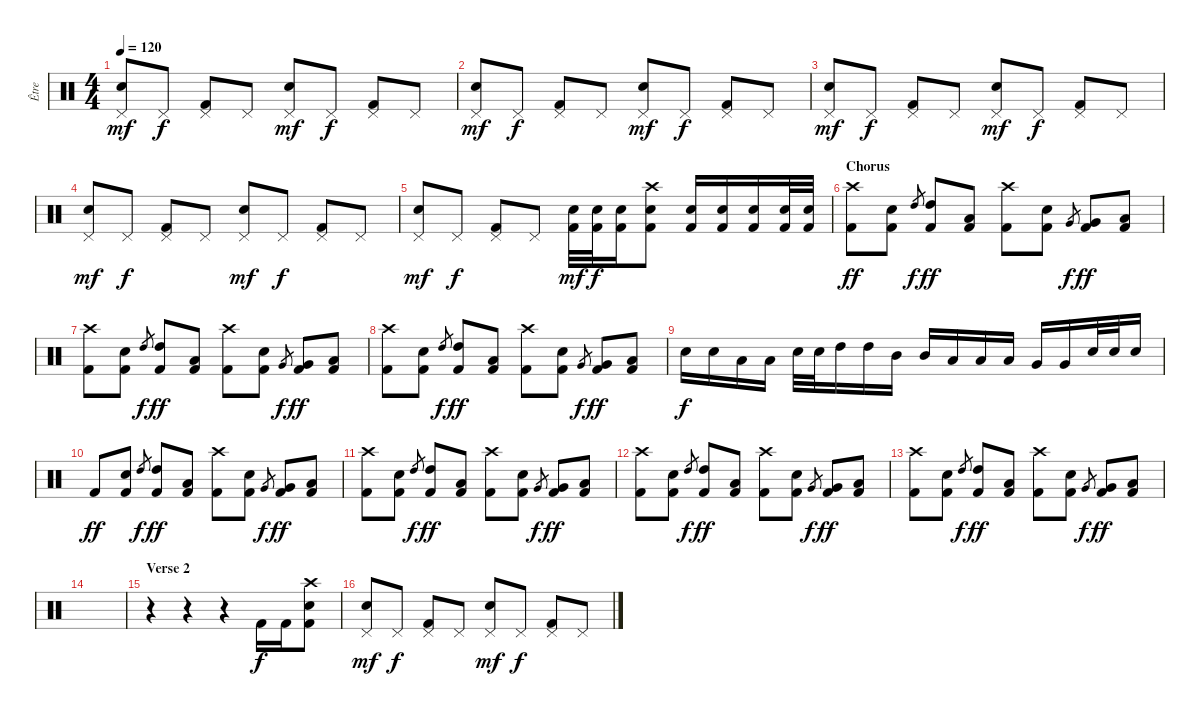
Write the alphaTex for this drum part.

\track ("Être" "Être") {instrument percussion}
\staff {score}
\articulation defaults
\ts (4 4)
\tempo 120
\clef neutral
\ks c
("Pedal Hi-Hat (hit)" "Electric Snare (hit)").8{dy mf} "Pedal Hi-Hat (hit)".8{dy f} ("Kick (hit) 2" "Pedal Hi-Hat (hit)").8 "Pedal Hi-Hat (hit)".8 ("Pedal Hi-Hat (hit)" "Electric Snare (hit)").8{dy mf} "Pedal Hi-Hat (hit)".8{dy f} ("Kick (hit) 2" "Pedal Hi-Hat (hit)").8 "Pedal Hi-Hat (hit)".8 |
("Pedal Hi-Hat (hit)" "Electric Snare (hit)").8{dy mf} "Pedal Hi-Hat (hit)".8{dy f} ("Kick (hit) 2" "Pedal Hi-Hat (hit)").8 "Pedal Hi-Hat (hit)".8 ("Pedal Hi-Hat (hit)" "Electric Snare (hit)").8{dy mf} "Pedal Hi-Hat (hit)".8{dy f} ("Kick (hit) 2" "Pedal Hi-Hat (hit)").8 "Pedal Hi-Hat (hit)".8 |
("Pedal Hi-Hat (hit)" "Electric Snare (hit)").8{dy mf} "Pedal Hi-Hat (hit)".8{dy f} ("Kick (hit) 2" "Pedal Hi-Hat (hit)").8 "Pedal Hi-Hat (hit)".8 ("Pedal Hi-Hat (hit)" "Electric Snare (hit)").8{dy mf} "Pedal Hi-Hat (hit)".8{dy f} ("Kick (hit) 2" "Pedal Hi-Hat (hit)").8 "Pedal Hi-Hat (hit)".8 |
("Pedal Hi-Hat (hit)" "Electric Snare (hit)").8{dy mf} "Pedal Hi-Hat (hit)".8{dy f} ("Kick (hit) 2" "Pedal Hi-Hat (hit)").8 "Pedal Hi-Hat (hit)".8 ("Pedal Hi-Hat (hit)" "Electric Snare (hit)").8{dy mf} "Pedal Hi-Hat (hit)".8{dy f} ("Kick (hit) 2" "Pedal Hi-Hat (hit)").8 "Pedal Hi-Hat (hit)".8 |
("Pedal Hi-Hat (hit)" "Electric Snare (hit)").8{dy mf} "Pedal Hi-Hat (hit)".8{dy f} ("Kick (hit) 2" "Pedal Hi-Hat (hit)").8 "Pedal Hi-Hat (hit)".8 ("Kick (hit) 2" "Electric Snare (hit)").32{dy mf} ("Kick (hit) 2" "Electric Snare (hit)").32{dy f} ("Kick (hit) 2" "Electric Snare (hit)").16 ("Crash high (hit)" "Kick (hit) 2" "Electric Snare (hit)").8 ("Kick (hit) 2" "Electric Snare (hit)").16 ("Kick (hit) 2" "Electric Snare (hit)").16 ("Kick (hit) 2" "Electric Snare (hit)").16 ("Kick (hit) 2" "Electric Snare (hit)").32 ("Kick (hit) 2" "Electric Snare (hit)").32 |
\section ("" "Chorus")
("Crash high (hit)" "Kick (hit) 2").8{dy ff} ("Kick (hit) 2" "Electric Snare (hit)").8 "High Tom (hit)".8{gr dy f} ("High Tom (hit)" "Kick (hit) 2").8{dy ff} ("Low Tom (hit)" "Kick (hit) 2").8 ("Crash high (hit)" "Kick (hit) 2").8 ("Kick (hit) 2" "Electric Snare (hit)").8 "Very Low Tom (hit)".8{gr dy f} ("Very Low Tom (hit)" "Kick (hit) 2").8{dy ff} ("Low Floor Tom (hit)" "Kick (hit) 2").8 |
("Crash high (hit)" "Kick (hit) 2").8 ("Kick (hit) 2" "Electric Snare (hit)").8 "High Tom (hit)".8{gr dy f} ("High Tom (hit)" "Kick (hit) 2").8{dy ff} ("Low Tom (hit)" "Kick (hit) 2").8 ("Crash high (hit)" "Kick (hit) 2").8 ("Kick (hit) 2" "Electric Snare (hit)").8 "Very Low Tom (hit)".8{gr dy f} ("Very Low Tom (hit)" "Kick (hit) 2").8{dy ff} ("Low Floor Tom (hit)" "Kick (hit) 2").8 |
("Crash high (hit)" "Kick (hit) 2").8 ("Kick (hit) 2" "Electric Snare (hit)").8 "High Tom (hit)".8{gr dy f} ("High Tom (hit)" "Kick (hit) 2").8{dy ff} ("Low Tom (hit)" "Kick (hit) 2").8 ("Crash high (hit)" "Kick (hit) 2").8 ("Kick (hit) 2" "Electric Snare (hit)").8 "Very Low Tom (hit)".8{gr dy f} ("Very Low Tom (hit)" "Kick (hit) 2").8{dy ff} ("Low Floor Tom (hit)" "Kick (hit) 2").8 |
"Electric Snare (hit)".16{dy f} "Electric Snare (hit)".16 "Low Tom (hit)".16 "Low Tom (hit)".16 "Electric Snare (hit)".32 "Electric Snare (hit)".32 "High Tom (hit)".16 "High Tom (hit)".16 "Mid Tom (hit)".16 "Mid Tom (hit)".16 "Low Tom (hit)".16 "Low Tom (hit)".16 "Low Tom (hit)".16 "Very Low Tom (hit)".16 "Very Low Tom (hit)".16 "Electric Snare (hit)".32 "Electric Snare (hit)".32 "Electric Snare (hit)".16 |
"Kick (hit) 2".8{dy ff} ("Kick (hit) 2" "Electric Snare (hit)").8 "High Tom (hit)".8{gr dy f} ("High Tom (hit)" "Kick (hit) 2").8{dy ff} ("Low Tom (hit)" "Kick (hit) 2").8 ("Crash high (hit)" "Kick (hit) 2").8 ("Kick (hit) 2" "Electric Snare (hit)").8 "Very Low Tom (hit)".8{gr dy f} ("Very Low Tom (hit)" "Kick (hit) 2").8{dy ff} ("Low Floor Tom (hit)" "Kick (hit) 2").8 |
("Crash high (hit)" "Kick (hit) 2").8 ("Kick (hit) 2" "Electric Snare (hit)").8 "High Tom (hit)".8{gr dy f} ("High Tom (hit)" "Kick (hit) 2").8{dy ff} ("Low Tom (hit)" "Kick (hit) 2").8 ("Crash high (hit)" "Kick (hit) 2").8 ("Kick (hit) 2" "Electric Snare (hit)").8 "Very Low Tom (hit)".8{gr dy f} ("Very Low Tom (hit)" "Kick (hit) 2").8{dy ff} ("Low Floor Tom (hit)" "Kick (hit) 2").8 |
("Crash high (hit)" "Kick (hit) 2").8 ("Kick (hit) 2" "Electric Snare (hit)").8 "High Tom (hit)".8{gr dy f} ("High Tom (hit)" "Kick (hit) 2").8{dy ff} ("Low Tom (hit)" "Kick (hit) 2").8 ("Crash high (hit)" "Kick (hit) 2").8 ("Kick (hit) 2" "Electric Snare (hit)").8 "Very Low Tom (hit)".8{gr dy f} ("Very Low Tom (hit)" "Kick (hit) 2").8{dy ff} ("Low Floor Tom (hit)" "Kick (hit) 2").8 |
("Crash high (hit)" "Kick (hit) 2").8 ("Kick (hit) 2" "Electric Snare (hit)").8 "High Tom (hit)".8{gr dy f} ("High Tom (hit)" "Kick (hit) 2").8{dy ff} ("Low Tom (hit)" "Kick (hit) 2").8 ("Crash high (hit)" "Kick (hit) 2").8 ("Kick (hit) 2" "Electric Snare (hit)").8 "Very Low Tom (hit)".8{gr dy f} ("Very Low Tom (hit)" "Kick (hit) 2").8{dy ff} ("Low Floor Tom (hit)" "Kick (hit) 2").8 |
|
\section ("" "Verse 2")
r.4 r.4 r.4 "Kick (hit) 2".16{dy f} "Kick (hit) 2".16 ("Kick (hit) 2" "Crash high (hit)" "Electric Snare (hit)").8 |
("Pedal Hi-Hat (hit)" "Electric Snare (hit)").8{dy mf} "Pedal Hi-Hat (hit)".8{dy f} ("Kick (hit) 2" "Pedal Hi-Hat (hit)").8 "Pedal Hi-Hat (hit)".8 ("Pedal Hi-Hat (hit)" "Electric Snare (hit)").8{dy mf} "Pedal Hi-Hat (hit)".8{dy f} ("Kick (hit) 2" "Pedal Hi-Hat (hit)").8 "Pedal Hi-Hat (hit)".8
